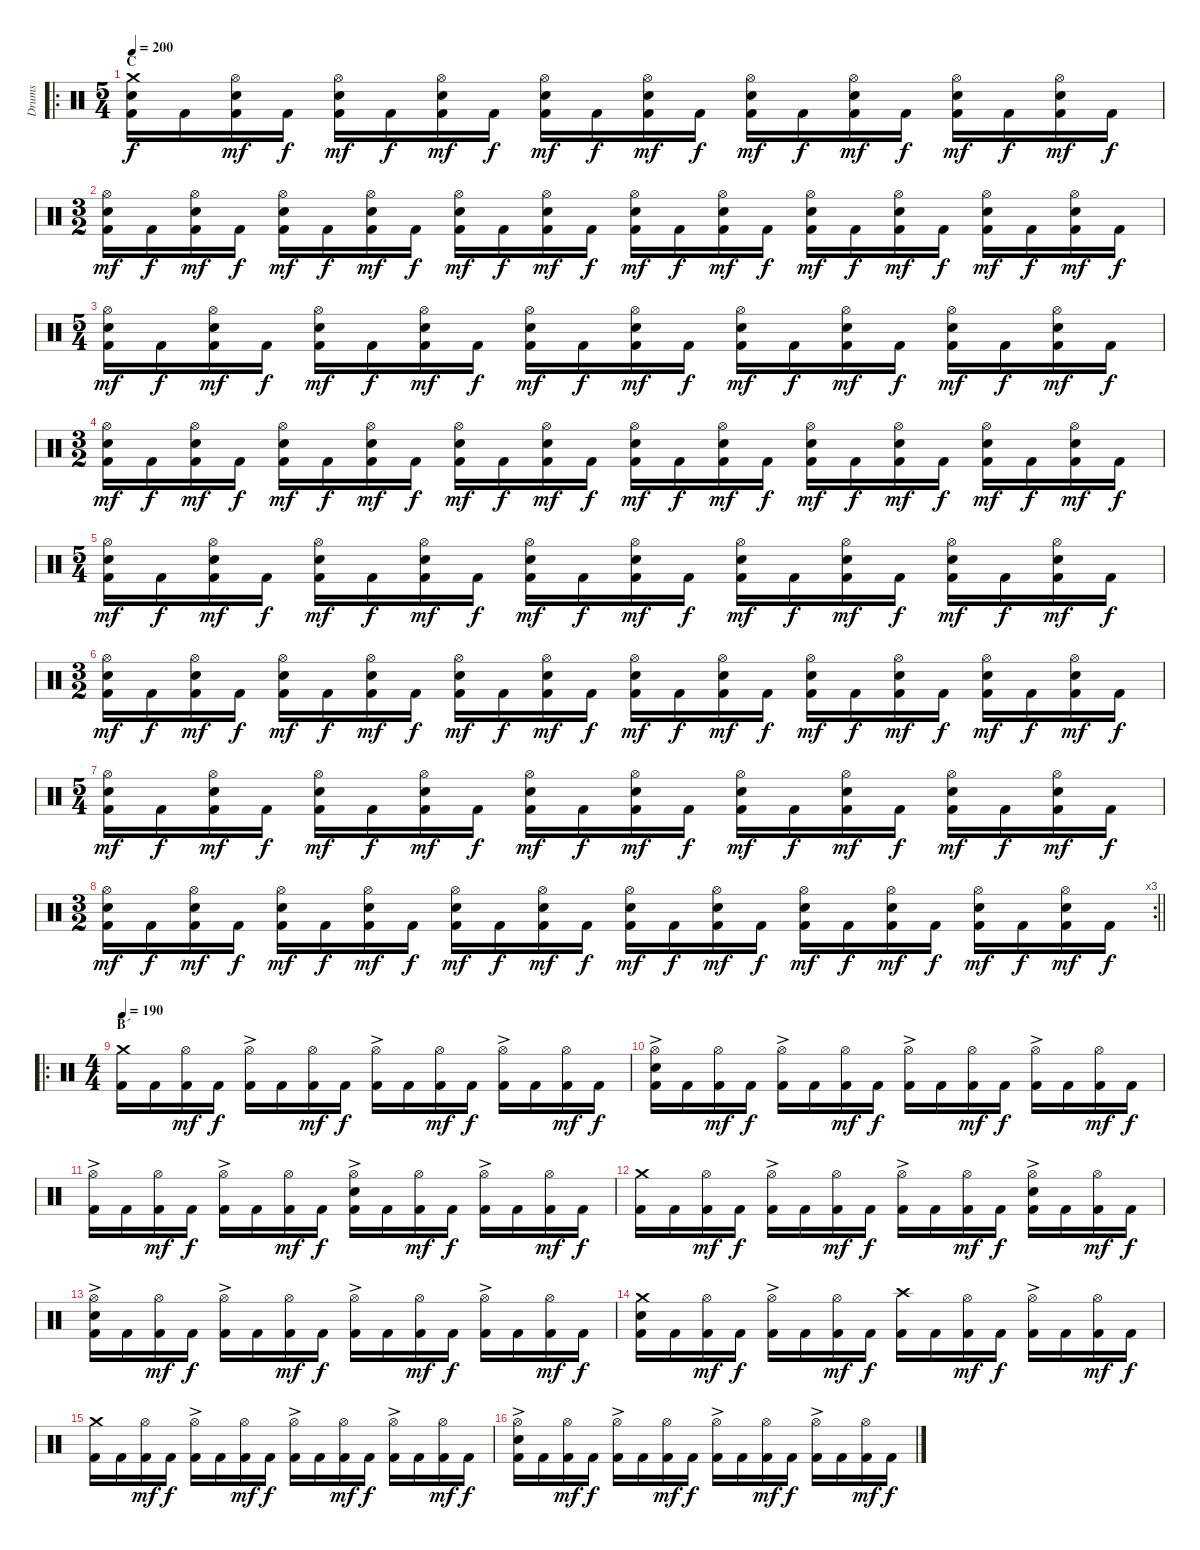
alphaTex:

\track ("Drums" "Drums") {instrument percussion}
\staff {score}
\articulation defaults
\ro
\ts (5 4)
\section ("" "C")
\tempo 200
\clef neutral
\ks c
("Crash medium (hit)" "Electric Snare (hit)" "Kick (hit) 2").16{dy f} "Kick (hit) 2".16 ("Hi-Hat (open)" "Electric Snare (hit)" "Kick (hit) 2").16{dy mf} "Kick (hit) 2".16{dy f} ("Hi-Hat (open)" "Electric Snare (hit)" "Kick (hit) 2").16{dy mf} "Kick (hit) 2".16{dy f} ("Hi-Hat (open)" "Electric Snare (hit)" "Kick (hit) 2").16{dy mf} "Kick (hit) 2".16{dy f} ("Hi-Hat (open)" "Electric Snare (hit)" "Kick (hit) 2").16{dy mf} "Kick (hit) 2".16{dy f} ("Hi-Hat (open)" "Electric Snare (hit)" "Kick (hit) 2").16{dy mf} "Kick (hit) 2".16{dy f} ("Hi-Hat (open)" "Electric Snare (hit)" "Kick (hit) 2").16{dy mf} "Kick (hit) 2".16{dy f} ("Hi-Hat (open)" "Electric Snare (hit)" "Kick (hit) 2").16{dy mf} "Kick (hit) 2".16{dy f} ("Hi-Hat (open)" "Electric Snare (hit)" "Kick (hit) 2").16{dy mf} "Kick (hit) 2".16{dy f} ("Hi-Hat (open)" "Electric Snare (hit)" "Kick (hit) 2").16{dy mf} "Kick (hit) 2".16{dy f} |
\ts (3 2)
("Hi-Hat (open)" "Electric Snare (hit)" "Kick (hit) 2").16{dy mf} "Kick (hit) 2".16{dy f} ("Hi-Hat (open)" "Electric Snare (hit)" "Kick (hit) 2").16{dy mf} "Kick (hit) 2".16{dy f} ("Hi-Hat (open)" "Electric Snare (hit)" "Kick (hit) 2").16{dy mf} "Kick (hit) 2".16{dy f} ("Hi-Hat (open)" "Electric Snare (hit)" "Kick (hit) 2").16{dy mf} "Kick (hit) 2".16{dy f} ("Hi-Hat (open)" "Electric Snare (hit)" "Kick (hit) 2").16{dy mf} "Kick (hit) 2".16{dy f} ("Hi-Hat (open)" "Electric Snare (hit)" "Kick (hit) 2").16{dy mf} "Kick (hit) 2".16{dy f} ("Hi-Hat (open)" "Electric Snare (hit)" "Kick (hit) 2").16{dy mf} "Kick (hit) 2".16{dy f} ("Hi-Hat (open)" "Electric Snare (hit)" "Kick (hit) 2").16{dy mf} "Kick (hit) 2".16{dy f} ("Hi-Hat (open)" "Electric Snare (hit)" "Kick (hit) 2").16{dy mf} "Kick (hit) 2".16{dy f} ("Hi-Hat (open)" "Electric Snare (hit)" "Kick (hit) 2").16{dy mf} "Kick (hit) 2".16{dy f} ("Hi-Hat (open)" "Electric Snare (hit)" "Kick (hit) 2").16{dy mf} "Kick (hit) 2".16{dy f} ("Hi-Hat (open)" "Electric Snare (hit)" "Kick (hit) 2").16{dy mf} "Kick (hit) 2".16{dy f} |
\ts (5 4)
("Hi-Hat (open)" "Electric Snare (hit)" "Kick (hit) 2").16{dy mf} "Kick (hit) 2".16{dy f} ("Hi-Hat (open)" "Electric Snare (hit)" "Kick (hit) 2").16{dy mf} "Kick (hit) 2".16{dy f} ("Hi-Hat (open)" "Electric Snare (hit)" "Kick (hit) 2").16{dy mf} "Kick (hit) 2".16{dy f} ("Hi-Hat (open)" "Electric Snare (hit)" "Kick (hit) 2").16{dy mf} "Kick (hit) 2".16{dy f} ("Hi-Hat (open)" "Electric Snare (hit)" "Kick (hit) 2").16{dy mf} "Kick (hit) 2".16{dy f} ("Hi-Hat (open)" "Electric Snare (hit)" "Kick (hit) 2").16{dy mf} "Kick (hit) 2".16{dy f} ("Hi-Hat (open)" "Electric Snare (hit)" "Kick (hit) 2").16{dy mf} "Kick (hit) 2".16{dy f} ("Hi-Hat (open)" "Electric Snare (hit)" "Kick (hit) 2").16{dy mf} "Kick (hit) 2".16{dy f} ("Hi-Hat (open)" "Electric Snare (hit)" "Kick (hit) 2").16{dy mf} "Kick (hit) 2".16{dy f} ("Hi-Hat (open)" "Electric Snare (hit)" "Kick (hit) 2").16{dy mf} "Kick (hit) 2".16{dy f} |
\ts (3 2)
("Hi-Hat (open)" "Electric Snare (hit)" "Kick (hit) 2").16{dy mf} "Kick (hit) 2".16{dy f} ("Hi-Hat (open)" "Electric Snare (hit)" "Kick (hit) 2").16{dy mf} "Kick (hit) 2".16{dy f} ("Hi-Hat (open)" "Electric Snare (hit)" "Kick (hit) 2").16{dy mf} "Kick (hit) 2".16{dy f} ("Hi-Hat (open)" "Electric Snare (hit)" "Kick (hit) 2").16{dy mf} "Kick (hit) 2".16{dy f} ("Hi-Hat (open)" "Electric Snare (hit)" "Kick (hit) 2").16{dy mf} "Kick (hit) 2".16{dy f} ("Hi-Hat (open)" "Electric Snare (hit)" "Kick (hit) 2").16{dy mf} "Kick (hit) 2".16{dy f} ("Hi-Hat (open)" "Electric Snare (hit)" "Kick (hit) 2").16{dy mf} "Kick (hit) 2".16{dy f} ("Hi-Hat (open)" "Electric Snare (hit)" "Kick (hit) 2").16{dy mf} "Kick (hit) 2".16{dy f} ("Hi-Hat (open)" "Electric Snare (hit)" "Kick (hit) 2").16{dy mf} "Kick (hit) 2".16{dy f} ("Hi-Hat (open)" "Electric Snare (hit)" "Kick (hit) 2").16{dy mf} "Kick (hit) 2".16{dy f} ("Hi-Hat (open)" "Electric Snare (hit)" "Kick (hit) 2").16{dy mf} "Kick (hit) 2".16{dy f} ("Hi-Hat (open)" "Electric Snare (hit)" "Kick (hit) 2").16{dy mf} "Kick (hit) 2".16{dy f} |
\ts (5 4)
("Hi-Hat (open)" "Electric Snare (hit)" "Kick (hit) 2").16{dy mf} "Kick (hit) 2".16{dy f} ("Hi-Hat (open)" "Electric Snare (hit)" "Kick (hit) 2").16{dy mf} "Kick (hit) 2".16{dy f} ("Hi-Hat (open)" "Electric Snare (hit)" "Kick (hit) 2").16{dy mf} "Kick (hit) 2".16{dy f} ("Hi-Hat (open)" "Electric Snare (hit)" "Kick (hit) 2").16{dy mf} "Kick (hit) 2".16{dy f} ("Hi-Hat (open)" "Electric Snare (hit)" "Kick (hit) 2").16{dy mf} "Kick (hit) 2".16{dy f} ("Hi-Hat (open)" "Electric Snare (hit)" "Kick (hit) 2").16{dy mf} "Kick (hit) 2".16{dy f} ("Hi-Hat (open)" "Electric Snare (hit)" "Kick (hit) 2").16{dy mf} "Kick (hit) 2".16{dy f} ("Hi-Hat (open)" "Electric Snare (hit)" "Kick (hit) 2").16{dy mf} "Kick (hit) 2".16{dy f} ("Hi-Hat (open)" "Electric Snare (hit)" "Kick (hit) 2").16{dy mf} "Kick (hit) 2".16{dy f} ("Hi-Hat (open)" "Electric Snare (hit)" "Kick (hit) 2").16{dy mf} "Kick (hit) 2".16{dy f} |
\ts (3 2)
("Hi-Hat (open)" "Electric Snare (hit)" "Kick (hit) 2").16{dy mf} "Kick (hit) 2".16{dy f} ("Hi-Hat (open)" "Electric Snare (hit)" "Kick (hit) 2").16{dy mf} "Kick (hit) 2".16{dy f} ("Hi-Hat (open)" "Electric Snare (hit)" "Kick (hit) 2").16{dy mf} "Kick (hit) 2".16{dy f} ("Hi-Hat (open)" "Electric Snare (hit)" "Kick (hit) 2").16{dy mf} "Kick (hit) 2".16{dy f} ("Hi-Hat (open)" "Electric Snare (hit)" "Kick (hit) 2").16{dy mf} "Kick (hit) 2".16{dy f} ("Hi-Hat (open)" "Electric Snare (hit)" "Kick (hit) 2").16{dy mf} "Kick (hit) 2".16{dy f} ("Hi-Hat (open)" "Electric Snare (hit)" "Kick (hit) 2").16{dy mf} "Kick (hit) 2".16{dy f} ("Hi-Hat (open)" "Electric Snare (hit)" "Kick (hit) 2").16{dy mf} "Kick (hit) 2".16{dy f} ("Hi-Hat (open)" "Electric Snare (hit)" "Kick (hit) 2").16{dy mf} "Kick (hit) 2".16{dy f} ("Hi-Hat (open)" "Electric Snare (hit)" "Kick (hit) 2").16{dy mf} "Kick (hit) 2".16{dy f} ("Hi-Hat (open)" "Electric Snare (hit)" "Kick (hit) 2").16{dy mf} "Kick (hit) 2".16{dy f} ("Hi-Hat (open)" "Electric Snare (hit)" "Kick (hit) 2").16{dy mf} "Kick (hit) 2".16{dy f} |
\ts (5 4)
("Hi-Hat (open)" "Electric Snare (hit)" "Kick (hit) 2").16{dy mf} "Kick (hit) 2".16{dy f} ("Hi-Hat (open)" "Electric Snare (hit)" "Kick (hit) 2").16{dy mf} "Kick (hit) 2".16{dy f} ("Hi-Hat (open)" "Electric Snare (hit)" "Kick (hit) 2").16{dy mf} "Kick (hit) 2".16{dy f} ("Hi-Hat (open)" "Electric Snare (hit)" "Kick (hit) 2").16{dy mf} "Kick (hit) 2".16{dy f} ("Hi-Hat (open)" "Electric Snare (hit)" "Kick (hit) 2").16{dy mf} "Kick (hit) 2".16{dy f} ("Hi-Hat (open)" "Electric Snare (hit)" "Kick (hit) 2").16{dy mf} "Kick (hit) 2".16{dy f} ("Hi-Hat (open)" "Electric Snare (hit)" "Kick (hit) 2").16{dy mf} "Kick (hit) 2".16{dy f} ("Hi-Hat (open)" "Electric Snare (hit)" "Kick (hit) 2").16{dy mf} "Kick (hit) 2".16{dy f} ("Hi-Hat (open)" "Electric Snare (hit)" "Kick (hit) 2").16{dy mf} "Kick (hit) 2".16{dy f} ("Hi-Hat (open)" "Electric Snare (hit)" "Kick (hit) 2").16{dy mf} "Kick (hit) 2".16{dy f} |
\rc 3
\ts (3 2)
\barLineRight lightlight
("Hi-Hat (open)" "Electric Snare (hit)" "Kick (hit) 2").16{dy mf} "Kick (hit) 2".16{dy f} ("Hi-Hat (open)" "Electric Snare (hit)" "Kick (hit) 2").16{dy mf} "Kick (hit) 2".16{dy f} ("Hi-Hat (open)" "Electric Snare (hit)" "Kick (hit) 2").16{dy mf} "Kick (hit) 2".16{dy f} ("Hi-Hat (open)" "Electric Snare (hit)" "Kick (hit) 2").16{dy mf} "Kick (hit) 2".16{dy f} ("Hi-Hat (open)" "Electric Snare (hit)" "Kick (hit) 2").16{dy mf} "Kick (hit) 2".16{dy f} ("Hi-Hat (open)" "Electric Snare (hit)" "Kick (hit) 2").16{dy mf} "Kick (hit) 2".16{dy f} ("Hi-Hat (open)" "Electric Snare (hit)" "Kick (hit) 2").16{dy mf} "Kick (hit) 2".16{dy f} ("Hi-Hat (open)" "Electric Snare (hit)" "Kick (hit) 2").16{dy mf} "Kick (hit) 2".16{dy f} ("Hi-Hat (open)" "Electric Snare (hit)" "Kick (hit) 2").16{dy mf} "Kick (hit) 2".16{dy f} ("Hi-Hat (open)" "Electric Snare (hit)" "Kick (hit) 2").16{dy mf} "Kick (hit) 2".16{dy f} ("Hi-Hat (open)" "Electric Snare (hit)" "Kick (hit) 2").16{dy mf} "Kick (hit) 2".16{dy f} ("Hi-Hat (open)" "Electric Snare (hit)" "Kick (hit) 2").16{dy mf} "Kick (hit) 2".16{dy f} |
\ro
\ts (4 4)
\section ("" "B´")
\tempo 190
("Crash medium (hit)" "Kick (hit) 2").16 "Kick (hit) 2".16 ("Hi-Hat (open)" "Kick (hit) 2").16{dy mf} "Kick (hit) 2".16{dy f} ("Hi-Hat (open)"{ac} "Kick (hit) 2").16 "Kick (hit) 2".16 ("Hi-Hat (open)" "Kick (hit) 2").16{dy mf} "Kick (hit) 2".16{dy f} ("Hi-Hat (open)"{ac} "Kick (hit) 2").16 "Kick (hit) 2".16 ("Hi-Hat (open)" "Kick (hit) 2").16{dy mf} "Kick (hit) 2".16{dy f} ("Hi-Hat (open)"{ac} "Kick (hit) 2").16 "Kick (hit) 2".16 ("Hi-Hat (open)" "Kick (hit) 2").16{dy mf} "Kick (hit) 2".16{dy f} |
("Hi-Hat (open)"{ac} "Electric Snare (hit)" "Kick (hit) 2").16 "Kick (hit) 2".16 ("Hi-Hat (open)" "Kick (hit) 2").16{dy mf} "Kick (hit) 2".16{dy f} ("Hi-Hat (open)"{ac} "Kick (hit) 2").16 "Kick (hit) 2".16 ("Hi-Hat (open)" "Kick (hit) 2").16{dy mf} "Kick (hit) 2".16{dy f} ("Hi-Hat (open)"{ac} "Kick (hit) 2").16 "Kick (hit) 2".16 ("Hi-Hat (open)" "Kick (hit) 2").16{dy mf} "Kick (hit) 2".16{dy f} ("Hi-Hat (open)"{ac} "Kick (hit) 2").16 "Kick (hit) 2".16 ("Hi-Hat (open)" "Kick (hit) 2").16{dy mf} "Kick (hit) 2".16{dy f} |
("Hi-Hat (open)"{ac} "Kick (hit) 2").16 "Kick (hit) 2".16 ("Hi-Hat (open)" "Kick (hit) 2").16{dy mf} "Kick (hit) 2".16{dy f} ("Hi-Hat (open)"{ac} "Kick (hit) 2").16 "Kick (hit) 2".16 ("Hi-Hat (open)" "Kick (hit) 2").16{dy mf} "Kick (hit) 2".16{dy f} ("Hi-Hat (open)"{ac} "Electric Snare (hit)" "Kick (hit) 2").16 "Kick (hit) 2".16 ("Hi-Hat (open)" "Kick (hit) 2").16{dy mf} "Kick (hit) 2".16{dy f} ("Hi-Hat (open)"{ac} "Kick (hit) 2").16 "Kick (hit) 2".16 ("Hi-Hat (open)" "Kick (hit) 2").16{dy mf} "Kick (hit) 2".16{dy f} |
("Crash medium (hit)" "Kick (hit) 2").16 "Kick (hit) 2".16 ("Hi-Hat (open)" "Kick (hit) 2").16{dy mf} "Kick (hit) 2".16{dy f} ("Hi-Hat (open)"{ac} "Kick (hit) 2").16 "Kick (hit) 2".16 ("Hi-Hat (open)" "Kick (hit) 2").16{dy mf} "Kick (hit) 2".16{dy f} ("Hi-Hat (open)"{ac} "Kick (hit) 2").16 "Kick (hit) 2".16 ("Hi-Hat (open)" "Kick (hit) 2").16{dy mf} "Kick (hit) 2".16{dy f} ("Hi-Hat (open)"{ac} "Electric Snare (hit)" "Kick (hit) 2").16 "Kick (hit) 2".16 ("Hi-Hat (open)" "Kick (hit) 2").16{dy mf} "Kick (hit) 2".16{dy f} |
("Hi-Hat (open)"{ac} "Electric Snare (hit)" "Kick (hit) 2").16 "Kick (hit) 2".16 ("Hi-Hat (open)" "Kick (hit) 2").16{dy mf} "Kick (hit) 2".16{dy f} ("Hi-Hat (open)"{ac} "Kick (hit) 2").16 "Kick (hit) 2".16 ("Hi-Hat (open)" "Kick (hit) 2").16{dy mf} "Kick (hit) 2".16{dy f} ("Hi-Hat (open)"{ac} "Kick (hit) 2").16 "Kick (hit) 2".16 ("Hi-Hat (open)" "Kick (hit) 2").16{dy mf} "Kick (hit) 2".16{dy f} ("Hi-Hat (open)"{ac} "Kick (hit) 2").16 "Kick (hit) 2".16 ("Hi-Hat (open)" "Kick (hit) 2").16{dy mf} "Kick (hit) 2".16{dy f} |
("Crash medium (hit)" "Electric Snare (hit)" "Kick (hit) 2").16 "Kick (hit) 2".16 ("Hi-Hat (open)" "Kick (hit) 2").16{dy mf} "Kick (hit) 2".16{dy f} ("Hi-Hat (open)"{ac} "Kick (hit) 2").16 "Kick (hit) 2".16 ("Hi-Hat (open)" "Kick (hit) 2").16{dy mf} "Kick (hit) 2".16{dy f} ("Crash high (hit)" "Kick (hit) 2").16 "Kick (hit) 2".16 ("Hi-Hat (open)" "Kick (hit) 2").16{dy mf} "Kick (hit) 2".16{dy f} ("Hi-Hat (open)"{ac} "Kick (hit) 2").16 "Kick (hit) 2".16 ("Hi-Hat (open)" "Kick (hit) 2").16{dy mf} "Kick (hit) 2".16{dy f} |
("Crash medium (hit)" "Kick (hit) 2").16 "Kick (hit) 2".16 ("Hi-Hat (open)" "Kick (hit) 2").16{dy mf} "Kick (hit) 2".16{dy f} ("Hi-Hat (open)"{ac} "Kick (hit) 2").16 "Kick (hit) 2".16 ("Hi-Hat (open)" "Kick (hit) 2").16{dy mf} "Kick (hit) 2".16{dy f} ("Hi-Hat (open)"{ac} "Kick (hit) 2").16 "Kick (hit) 2".16 ("Hi-Hat (open)" "Kick (hit) 2").16{dy mf} "Kick (hit) 2".16{dy f} ("Hi-Hat (open)"{ac} "Kick (hit) 2").16 "Kick (hit) 2".16 ("Hi-Hat (open)" "Kick (hit) 2").16{dy mf} "Kick (hit) 2".16{dy f} |
("Hi-Hat (open)"{ac} "Electric Snare (hit)" "Kick (hit) 2").16 "Kick (hit) 2".16 ("Hi-Hat (open)" "Kick (hit) 2").16{dy mf} "Kick (hit) 2".16{dy f} ("Hi-Hat (open)"{ac} "Kick (hit) 2").16 "Kick (hit) 2".16 ("Hi-Hat (open)" "Kick (hit) 2").16{dy mf} "Kick (hit) 2".16{dy f} ("Hi-Hat (open)"{ac} "Kick (hit) 2").16 "Kick (hit) 2".16 ("Hi-Hat (open)" "Kick (hit) 2").16{dy mf} "Kick (hit) 2".16{dy f} ("Hi-Hat (open)"{ac} "Kick (hit) 2").16 "Kick (hit) 2".16 ("Hi-Hat (open)" "Kick (hit) 2").16{dy mf} "Kick (hit) 2".16{dy f}
